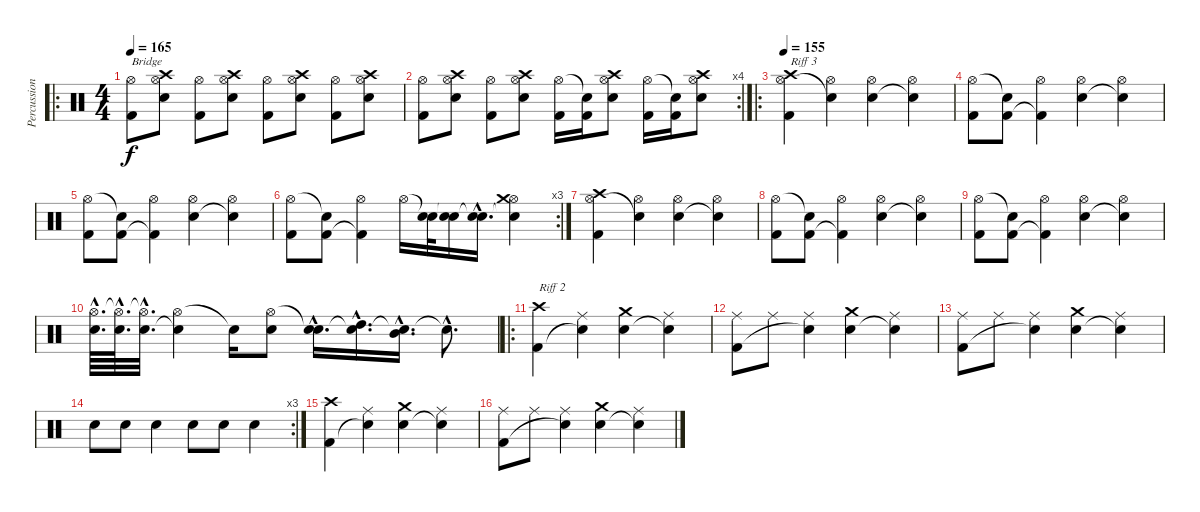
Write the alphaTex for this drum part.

\track ("Percussion" "Percussion") {instrument percussion}
\staff {score}
\articulation defaults
\ro
\ts (4 4)
\tempo 165
\clef neutral
\ks c
("Hi-Hat (open)" "Kick (hit) 2").8{txt "Bridge" dy f} ("Crash high (hit)" "Hi-Hat (open)" "Electric Snare (hit)").8 ("Hi-Hat (open)" "Kick (hit) 2").8 ("Crash high (hit)" "Hi-Hat (open)" "Electric Snare (hit)").8 ("Hi-Hat (open)" "Kick (hit) 2").8 ("Crash high (hit)" "Hi-Hat (open)" "Electric Snare (hit)").8 ("Hi-Hat (open)" "Kick (hit) 2").8 ("Crash high (hit)" "Hi-Hat (open)" "Electric Snare (hit)").8 |
\rc 4
("Hi-Hat (open)" "Kick (hit) 2").8 ("Crash high (hit)" "Hi-Hat (open)" "Electric Snare (hit)").8 ("Hi-Hat (open)" "Kick (hit) 2").8 ("Crash high (hit)" "Hi-Hat (open)" "Electric Snare (hit)").8 ("Hi-Hat (open)" "Kick (hit) 2").16 ("Snare (hit)"{t} "Kick (hit) 2").16 ("Crash high (hit)" "Hi-Hat (open)" "Electric Snare (hit)").8 ("Hi-Hat (open)" "Kick (hit) 2").16 ("Snare (hit)"{t} "Kick (hit) 2").16 ("Crash high (hit)" "Hi-Hat (open)" "Electric Snare (hit)").8 |
\ro
\tempo 155
("Crash high (hit)" "Hi-Hat (open)" "Kick (hit) 2").4{txt "Riff 3"} ("Hi-Hat (open)" "Snare (hit)"{t}).4 ("Hi-Hat (open)" "Electric Snare (hit)").4 ("Hi-Hat (open)" "Snare (hit)"{t}).4 |
("Hi-Hat (open)" "Kick (hit) 2").8 ("Snare (hit)"{t} "Kick (hit) 2").8 ("Hi-Hat (open)" "Kick (hit) 2"{t}).4 ("Hi-Hat (open)" "Electric Snare (hit)").4 ("Hi-Hat (open)" "Snare (hit)"{t}).4 |
("Hi-Hat (open)" "Kick (hit) 2").8 ("Snare (hit)"{t} "Kick (hit) 2").8 ("Hi-Hat (open)" "Kick (hit) 2"{t}).4 ("Hi-Hat (open)" "Electric Snare (hit)").4 ("Hi-Hat (open)" "Snare (hit)"{t}).4 |
\rc 3
("Hi-Hat (open)" "Kick (hit) 2").8 ("Snare (hit)"{t} "Kick (hit) 2").8 ("Hi-Hat (open)" "Kick (hit) 2"{t}).4 "Hi-Hat (open)".16 ("Snare (hit)"{t} "Electric Snare (hit)").32 ("Snare (hit)"{t} "Electric Snare (hit)").16 ("Snare (hit)"{hac t} "Electric Snare (hit)"{hac}).16{d} ("Hi-Hat (open)" "Electric Snare (hit)"{t} "Crash medium (hit)").4 |
("Crash high (hit)" "Hi-Hat (open)" "Kick (hit) 2").4 ("Hi-Hat (open)" "Snare (hit)"{t}).4 ("Hi-Hat (open)" "Electric Snare (hit)").4 ("Hi-Hat (open)" "Snare (hit)"{t}).4 |
("Hi-Hat (open)" "Kick (hit) 2").8 ("Snare (hit)"{t} "Kick (hit) 2").8 ("Hi-Hat (open)" "Kick (hit) 2"{t}).4 ("Hi-Hat (open)" "Electric Snare (hit)").4 ("Hi-Hat (open)" "Snare (hit)"{t}).4 |
("Hi-Hat (open)" "Kick (hit) 2").8 ("Snare (hit)"{t} "Kick (hit) 2").8 ("Hi-Hat (open)" "Kick (hit) 2"{t}).4 ("Hi-Hat (open)" "Electric Snare (hit)").4 ("Hi-Hat (open)" "Snare (hit)"{t}).4 |
("Hi-Hat (open)"{hac} "Electric Snare (hit)"{hac}).64{d} ("Hi-Hat (open)"{hac t} "Electric Snare (hit)"{hac}).64{d} ("Hi-Hat (open)"{hac t} "Electric Snare (hit)"{hac}).32{d} ("Hi-Hat (open)" "Snare (hit)"{t}).4 "Snare (hit)"{t}.16 ("Hi-Hat (open)" "Electric Snare (hit)").8 ("Snare (hit)"{hac t} "Electric Snare (hit)"{hac}).16{d} ("Snare (hit)"{hac t} "High Tom (hit)"{hac}).16{d} ("Snare (hit)"{hac t} "Mid Tom (hit)"{hac}).16{d} "Electric Snare (hit)"{hac t}.8{d} |
\ro
("Crash high (hit)" "Kick (hit) 2").4{txt "Riff 2"} ("Ride (middle)" "Snare (hit)"{t}).4 ("Crash medium (hit)" "Electric Snare (hit)").4 ("Ride (middle)" "Snare (hit)"{t}).4 |
("Ride (middle)" "Kick (hit) 2").8 "Ride (middle)".8 ("Ride (middle)" "Snare (hit)"{t}).4 ("Crash medium (hit)" "Electric Snare (hit)").4 ("Ride (middle)" "Snare (hit)"{t}).4 |
("Ride (middle)" "Kick (hit) 2").8 "Ride (middle)".8 ("Ride (middle)" "Snare (hit)"{t}).4 ("Crash medium (hit)" "Electric Snare (hit)").4 ("Ride (middle)" "Snare (hit)"{t}).4 |
\rc 3 "Electric Snare (hit)".8 "Electric Snare (hit)".8 "Electric Snare (hit)".4 "Electric Snare (hit)".8 "Electric Snare (hit)".8 "Electric Snare (hit)".4
|
("Crash high (hit)" "Kick (hit) 2").4 ("Ride (middle)" "Snare (hit)"{t}).4 ("Crash medium (hit)" "Electric Snare (hit)").4 ("Ride (middle)" "Snare (hit)"{t}).4 |
("Ride (middle)" "Kick (hit) 2").8 "Ride (middle)".8 ("Ride (middle)" "Snare (hit)"{t}).4 ("Crash medium (hit)" "Electric Snare (hit)").4 ("Ride (middle)" "Snare (hit)"{t}).4
